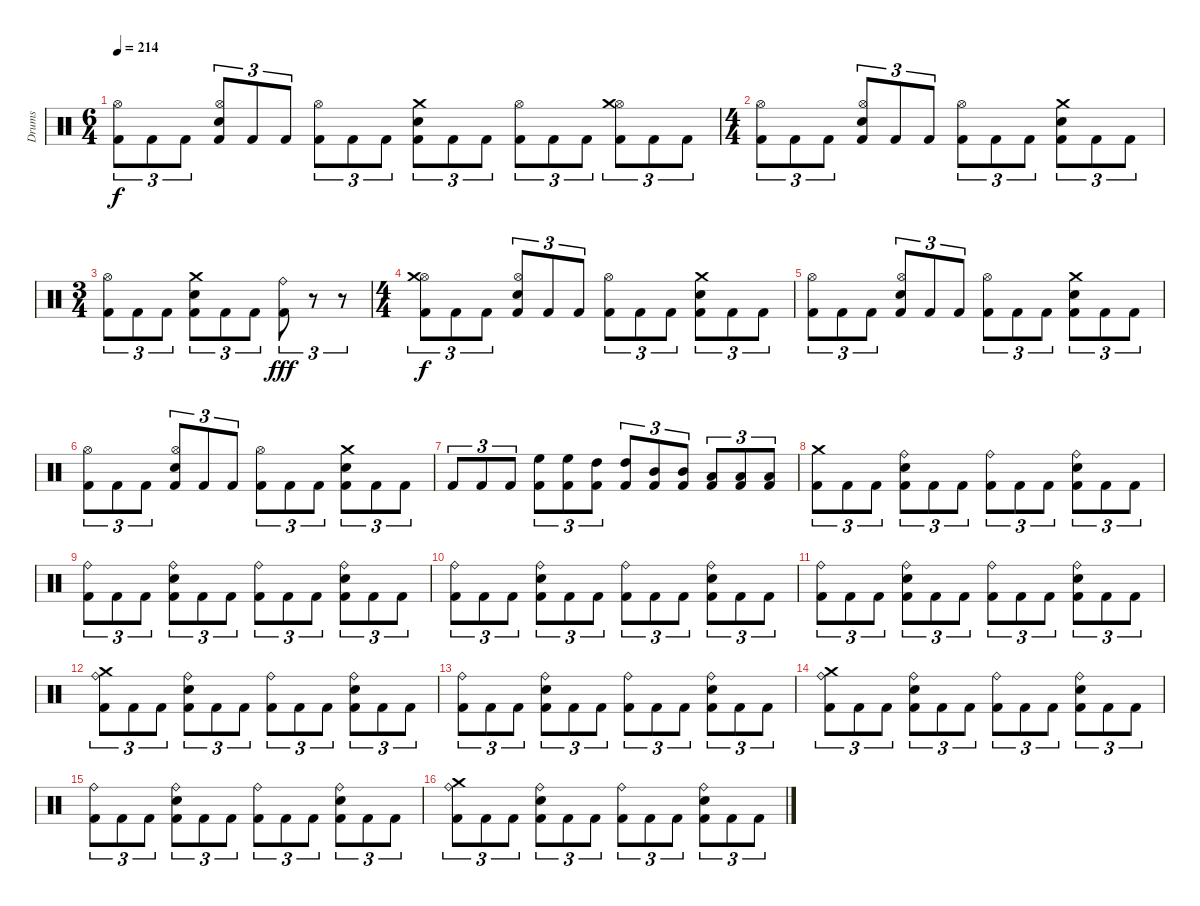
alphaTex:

\track ("Drums" "Drums") {instrument percussion}
\staff {score}
\articulation defaults
\ts (6 4)
\tempo 214
\clef neutral
\ks c
("Kick (hit) 2" "Hi-Hat (open)").8{tu (3 2) dy f} "Kick (hit) 2".8{tu (3 2)} "Kick (hit) 2".8{tu (3 2)} ("Kick (hit) 2" "Hi-Hat (open)" "Snare (hit) 2").8{tu (3 2)} "Kick (hit) 2".8{tu (3 2)} "Kick (hit) 2".8{tu (3 2)} ("Kick (hit) 2" "Hi-Hat (open)").8{tu (3 2)} "Kick (hit) 2".8{tu (3 2)} "Kick (hit) 2".8{tu (3 2)} ("Kick (hit) 2" "Crash medium (hit)" "Snare (hit) 2").8{tu (3 2)} "Kick (hit) 2".8{tu (3 2)} "Kick (hit) 2".8{tu (3 2)} ("Kick (hit) 2" "Hi-Hat (open)").8{tu (3 2)} "Kick (hit) 2".8{tu (3 2)} "Kick (hit) 2".8{tu (3 2)} ("Kick (hit) 2" "Hi-Hat (open)" "Crash medium (hit)").8{tu (3 2)} "Kick (hit) 2".8{tu (3 2)} "Kick (hit) 2".8{tu (3 2)} |
\ts (4 4)
("Kick (hit) 2" "Hi-Hat (open)").8{tu (3 2)} "Kick (hit) 2".8{tu (3 2)} "Kick (hit) 2".8{tu (3 2)} ("Kick (hit) 2" "Hi-Hat (open)" "Snare (hit) 2").8{tu (3 2)} "Kick (hit) 2".8{tu (3 2)} "Kick (hit) 2".8{tu (3 2)} ("Kick (hit) 2" "Hi-Hat (open)").8{tu (3 2)} "Kick (hit) 2".8{tu (3 2)} "Kick (hit) 2".8{tu (3 2)} ("Kick (hit) 2" "Crash medium (hit)" "Snare (hit) 2").8{tu (3 2)} "Kick (hit) 2".8{tu (3 2)} "Kick (hit) 2".8{tu (3 2)} |
\ts (3 4)
("Kick (hit) 2" "Hi-Hat (open)").8{tu (3 2)} "Kick (hit) 2".8{tu (3 2)} "Kick (hit) 2".8{tu (3 2)} ("Kick (hit) 2" "Crash medium (hit)" "Snare (hit) 2").8{tu (3 2)} "Kick (hit) 2".8{tu (3 2)} "Kick (hit) 2".8{tu (3 2)} ("Kick (hit) 2" "Ride (bell)").8{tu (3 2) dy fff} r.8{tu (3 2)} r.8{tu (3 2)} |
\ts (4 4)
("Kick (hit) 2" "Hi-Hat (open)" "Crash medium (hit)").8{tu (3 2) dy f} "Kick (hit) 2".8{tu (3 2)} "Kick (hit) 2".8{tu (3 2)} ("Kick (hit) 2" "Hi-Hat (open)" "Snare (hit) 2").8{tu (3 2)} "Kick (hit) 2".8{tu (3 2)} "Kick (hit) 2".8{tu (3 2)} ("Kick (hit) 2" "Hi-Hat (open)").8{tu (3 2)} "Kick (hit) 2".8{tu (3 2)} "Kick (hit) 2".8{tu (3 2)} ("Kick (hit) 2" "Crash medium (hit)" "Snare (hit) 2").8{tu (3 2)} "Kick (hit) 2".8{tu (3 2)} "Kick (hit) 2".8{tu (3 2)} |
("Kick (hit) 2" "Hi-Hat (open)").8{tu (3 2)} "Kick (hit) 2".8{tu (3 2)} "Kick (hit) 2".8{tu (3 2)} ("Kick (hit) 2" "Hi-Hat (open)" "Snare (hit) 2").8{tu (3 2)} "Kick (hit) 2".8{tu (3 2)} "Kick (hit) 2".8{tu (3 2)} ("Kick (hit) 2" "Hi-Hat (open)").8{tu (3 2)} "Kick (hit) 2".8{tu (3 2)} "Kick (hit) 2".8{tu (3 2)} ("Kick (hit) 2" "Crash medium (hit)" "Snare (hit) 2").8{tu (3 2)} "Kick (hit) 2".8{tu (3 2)} "Kick (hit) 2".8{tu (3 2)} |
("Kick (hit) 2" "Hi-Hat (open)").8{tu (3 2)} "Kick (hit) 2".8{tu (3 2)} "Kick (hit) 2".8{tu (3 2)} ("Kick (hit) 2" "Hi-Hat (open)" "Snare (hit) 2").8{tu (3 2)} "Kick (hit) 2".8{tu (3 2)} "Kick (hit) 2".8{tu (3 2)} ("Kick (hit) 2" "Hi-Hat (open)").8{tu (3 2)} "Kick (hit) 2".8{tu (3 2)} "Kick (hit) 2".8{tu (3 2)} ("Kick (hit) 2" "Crash medium (hit)" "Snare (hit) 2").8{tu (3 2)} "Kick (hit) 2".8{tu (3 2)} "Kick (hit) 2".8{tu (3 2)} |
"Kick (hit) 2".8{tu (3 2)} "Kick (hit) 2".8{tu (3 2)} "Kick (hit) 2".8{tu (3 2)} ("Kick (hit) 2" "High Floor Tom (hit)").8{tu (3 2)} ("Kick (hit) 2" "High Floor Tom (hit)").8{tu (3 2)} ("Kick (hit) 2" "High Tom (hit)").8{tu (3 2)} ("Kick (hit) 2" "High Tom (hit)").8{tu (3 2)} ("Kick (hit) 2" "Mid Tom (hit)").8{tu (3 2)} ("Kick (hit) 2" "Mid Tom (hit)").8{tu (3 2)} ("Kick (hit) 2" "Low Tom (hit)").8{tu (3 2)} ("Kick (hit) 2" "Low Tom (hit)").8{tu (3 2)} ("Kick (hit) 2" "Low Tom (hit)").8{tu (3 2)} |
("Kick (hit) 2" "Crash medium (hit)").8{tu (3 2)} "Kick (hit) 2".8{tu (3 2)} "Kick (hit) 2".8{tu (3 2)} ("Kick (hit) 2" "Ride (bell)" "Snare (hit) 2").8{tu (3 2)} "Kick (hit) 2".8{tu (3 2)} "Kick (hit) 2".8{tu (3 2)} ("Kick (hit) 2" "Ride (bell)").8{tu (3 2)} "Kick (hit) 2".8{tu (3 2)} "Kick (hit) 2".8{tu (3 2)} ("Kick (hit) 2" "Ride (bell)" "Snare (hit) 2").8{tu (3 2)} "Kick (hit) 2".8{tu (3 2)} "Kick (hit) 2".8{tu (3 2)} |
("Kick (hit) 2" "Ride (bell)").8{tu (3 2)} "Kick (hit) 2".8{tu (3 2)} "Kick (hit) 2".8{tu (3 2)} ("Kick (hit) 2" "Ride (bell)" "Snare (hit) 2").8{tu (3 2)} "Kick (hit) 2".8{tu (3 2)} "Kick (hit) 2".8{tu (3 2)} ("Kick (hit) 2" "Ride (bell)").8{tu (3 2)} "Kick (hit) 2".8{tu (3 2)} "Kick (hit) 2".8{tu (3 2)} ("Kick (hit) 2" "Ride (bell)" "Snare (hit) 2").8{tu (3 2)} "Kick (hit) 2".8{tu (3 2)} "Kick (hit) 2".8{tu (3 2)} |
("Kick (hit) 2" "Ride (bell)").8{tu (3 2)} "Kick (hit) 2".8{tu (3 2)} "Kick (hit) 2".8{tu (3 2)} ("Kick (hit) 2" "Ride (bell)" "Snare (hit) 2").8{tu (3 2)} "Kick (hit) 2".8{tu (3 2)} "Kick (hit) 2".8{tu (3 2)} ("Kick (hit) 2" "Ride (bell)").8{tu (3 2)} "Kick (hit) 2".8{tu (3 2)} "Kick (hit) 2".8{tu (3 2)} ("Kick (hit) 2" "Ride (bell)" "Snare (hit) 2").8{tu (3 2)} "Kick (hit) 2".8{tu (3 2)} "Kick (hit) 2".8{tu (3 2)} |
("Kick (hit) 2" "Ride (bell)").8{tu (3 2)} "Kick (hit) 2".8{tu (3 2)} "Kick (hit) 2".8{tu (3 2)} ("Kick (hit) 2" "Ride (bell)" "Snare (hit) 2").8{tu (3 2)} "Kick (hit) 2".8{tu (3 2)} "Kick (hit) 2".8{tu (3 2)} ("Kick (hit) 2" "Ride (bell)").8{tu (3 2)} "Kick (hit) 2".8{tu (3 2)} "Kick (hit) 2".8{tu (3 2)} ("Kick (hit) 2" "Ride (bell)" "Snare (hit) 2").8{tu (3 2)} "Kick (hit) 2".8{tu (3 2)} "Kick (hit) 2".8{tu (3 2)} |
("Kick (hit) 2" "Ride (bell)" "Crash medium (hit)").8{tu (3 2)} "Kick (hit) 2".8{tu (3 2)} "Kick (hit) 2".8{tu (3 2)} ("Kick (hit) 2" "Ride (bell)" "Snare (hit) 2").8{tu (3 2)} "Kick (hit) 2".8{tu (3 2)} "Kick (hit) 2".8{tu (3 2)} ("Kick (hit) 2" "Ride (bell)").8{tu (3 2)} "Kick (hit) 2".8{tu (3 2)} "Kick (hit) 2".8{tu (3 2)} ("Kick (hit) 2" "Ride (bell)" "Snare (hit) 2").8{tu (3 2)} "Kick (hit) 2".8{tu (3 2)} "Kick (hit) 2".8{tu (3 2)} |
("Kick (hit) 2" "Ride (bell)").8{tu (3 2)} "Kick (hit) 2".8{tu (3 2)} "Kick (hit) 2".8{tu (3 2)} ("Kick (hit) 2" "Ride (bell)" "Snare (hit) 2").8{tu (3 2)} "Kick (hit) 2".8{tu (3 2)} "Kick (hit) 2".8{tu (3 2)} ("Kick (hit) 2" "Ride (bell)").8{tu (3 2)} "Kick (hit) 2".8{tu (3 2)} "Kick (hit) 2".8{tu (3 2)} ("Kick (hit) 2" "Ride (bell)" "Snare (hit) 2").8{tu (3 2)} "Kick (hit) 2".8{tu (3 2)} "Kick (hit) 2".8{tu (3 2)} |
("Kick (hit) 2" "Ride (bell)" "Crash medium (hit)").8{tu (3 2)} "Kick (hit) 2".8{tu (3 2)} "Kick (hit) 2".8{tu (3 2)} ("Kick (hit) 2" "Ride (bell)" "Snare (hit) 2").8{tu (3 2)} "Kick (hit) 2".8{tu (3 2)} "Kick (hit) 2".8{tu (3 2)} ("Kick (hit) 2" "Ride (bell)").8{tu (3 2)} "Kick (hit) 2".8{tu (3 2)} "Kick (hit) 2".8{tu (3 2)} ("Kick (hit) 2" "Ride (bell)" "Snare (hit) 2").8{tu (3 2)} "Kick (hit) 2".8{tu (3 2)} "Kick (hit) 2".8{tu (3 2)} |
("Kick (hit) 2" "Ride (bell)").8{tu (3 2)} "Kick (hit) 2".8{tu (3 2)} "Kick (hit) 2".8{tu (3 2)} ("Kick (hit) 2" "Ride (bell)" "Snare (hit) 2").8{tu (3 2)} "Kick (hit) 2".8{tu (3 2)} "Kick (hit) 2".8{tu (3 2)} ("Kick (hit) 2" "Ride (bell)").8{tu (3 2)} "Kick (hit) 2".8{tu (3 2)} "Kick (hit) 2".8{tu (3 2)} ("Kick (hit) 2" "Ride (bell)" "Snare (hit) 2").8{tu (3 2)} "Kick (hit) 2".8{tu (3 2)} "Kick (hit) 2".8{tu (3 2)} |
("Kick (hit) 2" "Ride (bell)" "Crash medium (hit)").8{tu (3 2)} "Kick (hit) 2".8{tu (3 2)} "Kick (hit) 2".8{tu (3 2)} ("Kick (hit) 2" "Ride (bell)" "Snare (hit) 2").8{tu (3 2)} "Kick (hit) 2".8{tu (3 2)} "Kick (hit) 2".8{tu (3 2)} ("Kick (hit) 2" "Ride (bell)").8{tu (3 2)} "Kick (hit) 2".8{tu (3 2)} "Kick (hit) 2".8{tu (3 2)} ("Kick (hit) 2" "Ride (bell)" "Snare (hit) 2").8{tu (3 2)} "Kick (hit) 2".8{tu (3 2)} "Kick (hit) 2".8{tu (3 2)}
